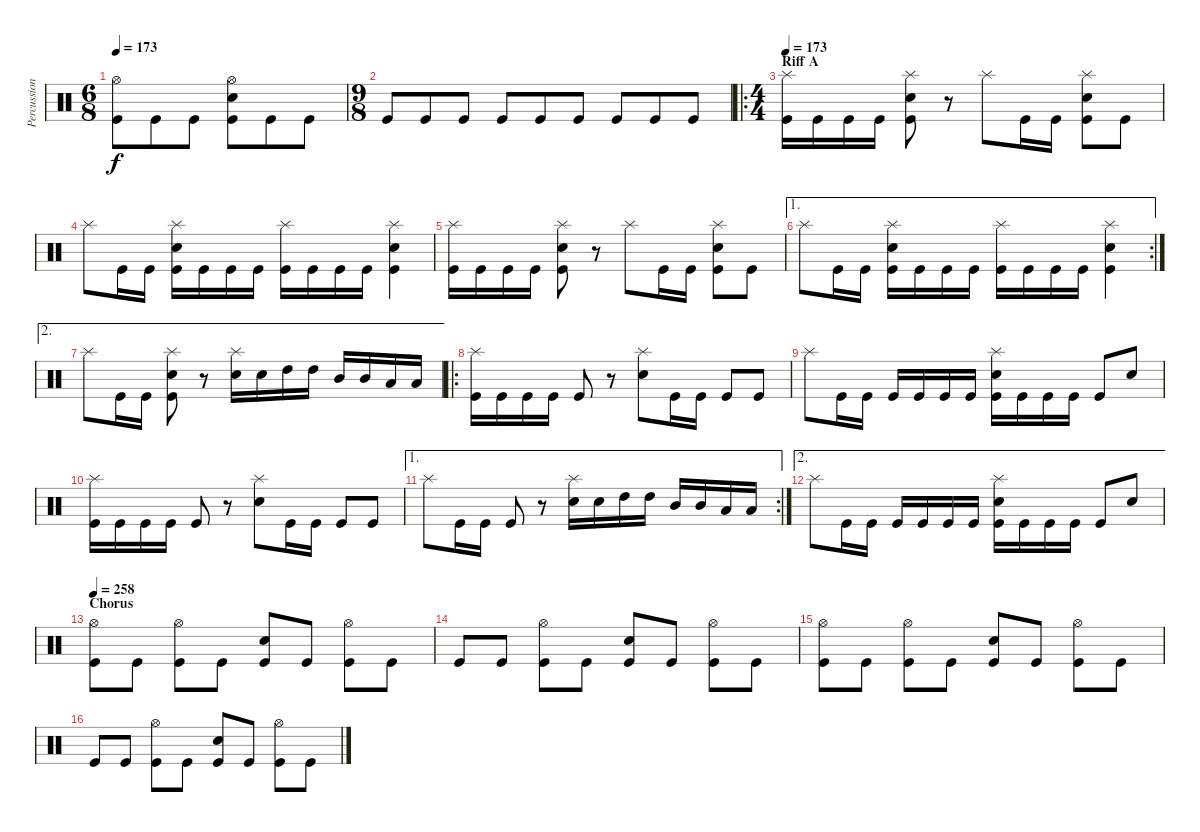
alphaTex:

\track ("Percussion" "Percussion") {instrument percussion}
\staff {score}
\articulation defaults
\ts (6 8)
\tempo 173
\clef neutral
\ks c
("Hi-Hat (open)" "Kick (hit)").8{dy f} "Kick (hit)".8 "Kick (hit)".8 ("Snare (hit) 2" "Hi-Hat (open)" "Kick (hit)").8 "Kick (hit)".8 "Kick (hit)".8 |
\ts (9 8)
"Kick (hit)".8 "Kick (hit)".8 "Kick (hit)".8 "Kick (hit)".8 "Kick (hit)".8 "Kick (hit)".8 "Kick (hit)".8 "Kick (hit)".8 "Kick (hit)".8 |
\ro
\ts (4 4)
\section ("" "Riff A")
\tempo 173
("Splash (hit)" "Kick (hit)").16 "Kick (hit)".16 "Kick (hit)".16 "Kick (hit)".16 ("Splash (hit)" "Snare (hit) 2" "Kick (hit)").8 r.8 "Splash (hit)".8 "Kick (hit)".16 "Kick (hit)".16 ("Splash (hit)" "Snare (hit) 2" "Kick (hit)").8 "Kick (hit)".8 |
"Splash (hit)".8 "Kick (hit)".16 "Kick (hit)".16 ("Splash (hit)" "Snare (hit) 2" "Kick (hit)").16 "Kick (hit)".16 "Kick (hit)".16 "Kick (hit)".16 ("Splash (hit)" "Kick (hit)").16 "Kick (hit)".16 "Kick (hit)".16 "Kick (hit)".16 ("Splash (hit)" "Snare (hit) 2" "Kick (hit)").4 |
("Splash (hit)" "Kick (hit)").16 "Kick (hit)".16 "Kick (hit)".16 "Kick (hit)".16 ("Splash (hit)" "Snare (hit) 2" "Kick (hit)").8 r.8 "Splash (hit)".8 "Kick (hit)".16 "Kick (hit)".16 ("Splash (hit)" "Snare (hit) 2" "Kick (hit)").8 "Kick (hit)".8 |
\ae 1
\rc 2 "Splash (hit)".8 "Kick (hit)".16 "Kick (hit)".16
("Splash (hit)" "Snare (hit) 2" "Kick (hit)").16 "Kick (hit)".16 "Kick (hit)".16 "Kick (hit)".16 ("Splash (hit)" "Kick (hit)").16 "Kick (hit)".16 "Kick (hit)".16 "Kick (hit)".16 ("Splash (hit)" "Snare (hit) 2" "Kick (hit)").4 |
\ae 2 "Splash (hit)".8 "Kick (hit)".16 "Kick (hit)".16
("Splash (hit)" "Snare (hit) 2" "Kick (hit)").8 r.8 ("Splash (hit)" "Snare (hit) 2").16 "Snare (hit) 2".16 "High Tom (hit)".16 "High Tom (hit)".16 "Mid Tom (hit)".16 "Mid Tom (hit)".16 "Low Tom (hit)".16 "Low Tom (hit)".16 |
\ro
("Splash (hit)" "Kick (hit)").16 "Kick (hit)".16 "Kick (hit)".16 "Kick (hit)".16 "Kick (hit)".8 r.8 ("Splash (hit)" "Snare (hit) 2").8 "Kick (hit)".16 "Kick (hit)".16 "Kick (hit)".8 "Kick (hit)".8 |
"Splash (hit)".8 "Kick (hit)".16 "Kick (hit)".16 "Kick (hit)".16 "Kick (hit)".16 "Kick (hit)".16 "Kick (hit)".16 ("Splash (hit)" "Snare (hit) 2" "Kick (hit)").16 "Kick (hit)".16 "Kick (hit)".16 "Kick (hit)".16 "Kick (hit)".8 "Snare (hit) 2".8 |
("Splash (hit)" "Kick (hit)").16 "Kick (hit)".16 "Kick (hit)".16 "Kick (hit)".16 "Kick (hit)".8 r.8 ("Splash (hit)" "Snare (hit) 2").8 "Kick (hit)".16 "Kick (hit)".16 "Kick (hit)".8 "Kick (hit)".8 |
\ae 1
\rc 2 "Splash (hit)".8 "Kick (hit)".16 "Kick (hit)".16 "Kick (hit)".8
r.8 ("Splash (hit)" "Snare (hit) 2").16 "Snare (hit) 2".16 "High Tom (hit)".16 "High Tom (hit)".16 "Mid Tom (hit)".16 "Mid Tom (hit)".16 "Low Tom (hit)".16 "Low Tom (hit)".16 |
\ae 2 "Splash (hit)".8 "Kick (hit)".16 "Kick (hit)".16 "Kick (hit)".16 "Kick (hit)".16 "Kick (hit)".16 "Kick (hit)".16
("Splash (hit)" "Snare (hit) 2" "Kick (hit)").16 "Kick (hit)".16 "Kick (hit)".16 "Kick (hit)".16 "Kick (hit)".8 "Snare (hit) 2".8 |
\section ("" "Chorus")
\tempo 261
\tempo 258
("Hi-Hat (open)" "Kick (hit)").8 "Kick (hit)".8 ("Hi-Hat (open)" "Kick (hit)").8 "Kick (hit)".8 ("Snare (hit) 2" "Kick (hit)").8 "Kick (hit)".8 ("Hi-Hat (open)" "Kick (hit)").8 "Kick (hit)".8 |
"Kick (hit)".8 "Kick (hit)".8 ("Hi-Hat (open)" "Kick (hit)").8 "Kick (hit)".8 ("Snare (hit) 2" "Kick (hit)").8 "Kick (hit)".8 ("Hi-Hat (open)" "Kick (hit)").8 "Kick (hit)".8 |
("Hi-Hat (open)" "Kick (hit)").8 "Kick (hit)".8 ("Hi-Hat (open)" "Kick (hit)").8 "Kick (hit)".8 ("Snare (hit) 2" "Kick (hit)").8 "Kick (hit)".8 ("Hi-Hat (open)" "Kick (hit)").8 "Kick (hit)".8 |
"Kick (hit)".8 "Kick (hit)".8 ("Hi-Hat (open)" "Kick (hit)").8 "Kick (hit)".8 ("Snare (hit) 2" "Kick (hit)").8 "Kick (hit)".8 ("Hi-Hat (open)" "Kick (hit)").8 "Kick (hit)".8
